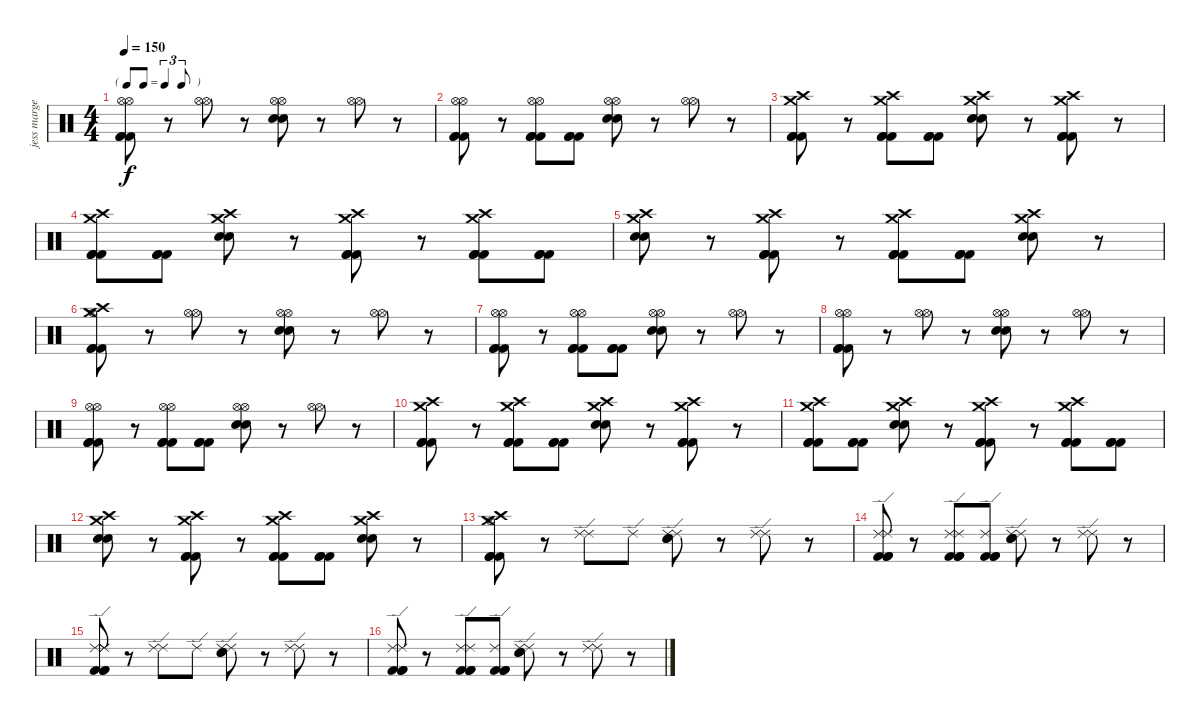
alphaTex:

\track ("jess margera" "jess marge") {instrument percussion}
\staff {score}
\articulation defaults
\ts (4 4)
\tf triplet8th
\tempo 150
\clef neutral
\ks c
("Hi-Hat (open)" "Hi-Hat (open)" "Kick (hit) 2" "Kick (hit) 2" "Kick (hit) 2").8{dy f} r.8 ("Hi-Hat (open)" "Hi-Hat (open)").8 r.8 ("Hi-Hat (open)" "Hi-Hat (open)" "Electric Snare (hit)" "Electric Snare (hit)").8 r.8 ("Hi-Hat (open)" "Hi-Hat (open)").8 r.8 |
("Hi-Hat (open)" "Hi-Hat (open)" "Kick (hit) 2" "Kick (hit) 2" "Kick (hit) 2").8 r.8 ("Hi-Hat (open)" "Hi-Hat (open)" "Kick (hit) 2" "Kick (hit) 2" "Kick (hit) 2").8 ("Kick (hit) 2" "Kick (hit) 2" "Kick (hit) 2").8 ("Hi-Hat (open)" "Hi-Hat (open)" "Electric Snare (hit)" "Electric Snare (hit)").8 r.8 ("Hi-Hat (open)" "Hi-Hat (open)").8 r.8 |
("Crash high (hit)" "Crash medium (hit)" "Kick (hit) 2" "Kick (hit) 2" "Kick (hit) 2").8 r.8 ("Crash high (hit)" "Crash medium (hit)" "Kick (hit) 2" "Kick (hit) 2" "Kick (hit) 2").8 ("Kick (hit) 2" "Kick (hit) 2" "Kick (hit) 2").8 ("Crash high (hit)" "Crash medium (hit)" "Electric Snare (hit)" "Electric Snare (hit)").8 r.8 ("Crash high (hit)" "Crash medium (hit)" "Kick (hit) 2" "Kick (hit) 2" "Kick (hit) 2").8 r.8 |
("Crash high (hit)" "Crash medium (hit)" "Kick (hit) 2" "Kick (hit) 2" "Kick (hit) 2").8 ("Kick (hit) 2" "Kick (hit) 2" "Kick (hit) 2").8 ("Crash high (hit)" "Crash medium (hit)" "Electric Snare (hit)" "Electric Snare (hit)").8 r.8 ("Crash high (hit)" "Crash medium (hit)" "Kick (hit) 2" "Kick (hit) 2" "Kick (hit) 2").8 r.8 ("Crash high (hit)" "Crash medium (hit)" "Kick (hit) 2" "Kick (hit) 2" "Kick (hit) 2").8 ("Kick (hit) 2" "Kick (hit) 2" "Kick (hit) 2").8 |
("Crash high (hit)" "Crash medium (hit)" "Electric Snare (hit)" "Electric Snare (hit)").8 r.8 ("Crash high (hit)" "Crash medium (hit)" "Kick (hit) 2" "Kick (hit) 2" "Kick (hit) 2").8 r.8 ("Crash high (hit)" "Crash medium (hit)" "Kick (hit) 2" "Kick (hit) 2" "Kick (hit) 2").8 ("Kick (hit) 2" "Kick (hit) 2" "Kick (hit) 2").8 ("Crash high (hit)" "Crash medium (hit)" "Electric Snare (hit)" "Electric Snare (hit)").8 r.8 |
("Hi-Hat (open)" "Crash high (hit)" "Crash medium (hit)" "Kick (hit) 2" "Kick (hit) 2" "Kick (hit) 2").8 r.8 ("Hi-Hat (open)" "Hi-Hat (open)").8 r.8 ("Hi-Hat (open)" "Hi-Hat (open)" "Electric Snare (hit)" "Electric Snare (hit)").8 r.8 ("Hi-Hat (open)" "Hi-Hat (open)").8 r.8 |
("Hi-Hat (open)" "Hi-Hat (open)" "Kick (hit) 2" "Kick (hit) 2" "Kick (hit) 2").8 r.8 ("Hi-Hat (open)" "Hi-Hat (open)" "Kick (hit) 2" "Kick (hit) 2" "Kick (hit) 2").8 ("Kick (hit) 2" "Kick (hit) 2" "Kick (hit) 2").8 ("Hi-Hat (open)" "Hi-Hat (open)" "Electric Snare (hit)" "Electric Snare (hit)").8 r.8 ("Hi-Hat (open)" "Hi-Hat (open)").8 r.8 |
("Hi-Hat (open)" "Hi-Hat (open)" "Kick (hit) 2" "Kick (hit) 2" "Kick (hit) 2").8 r.8 ("Hi-Hat (open)" "Hi-Hat (open)").8 r.8 ("Hi-Hat (open)" "Hi-Hat (open)" "Electric Snare (hit)" "Electric Snare (hit)").8 r.8 ("Hi-Hat (open)" "Hi-Hat (open)").8 r.8 |
("Hi-Hat (open)" "Hi-Hat (open)" "Kick (hit) 2" "Kick (hit) 2" "Kick (hit) 2").8 r.8 ("Hi-Hat (open)" "Hi-Hat (open)" "Kick (hit) 2" "Kick (hit) 2" "Kick (hit) 2").8 ("Kick (hit) 2" "Kick (hit) 2" "Kick (hit) 2").8 ("Hi-Hat (open)" "Hi-Hat (open)" "Electric Snare (hit)" "Electric Snare (hit)").8 r.8 ("Hi-Hat (open)" "Hi-Hat (open)").8 r.8 |
("Crash high (hit)" "Crash medium (hit)" "Kick (hit) 2" "Kick (hit) 2" "Kick (hit) 2").8 r.8 ("Crash high (hit)" "Crash medium (hit)" "Kick (hit) 2" "Kick (hit) 2" "Kick (hit) 2").8 ("Kick (hit) 2" "Kick (hit) 2" "Kick (hit) 2").8 ("Crash high (hit)" "Crash medium (hit)" "Electric Snare (hit)" "Electric Snare (hit)").8 r.8 ("Crash high (hit)" "Crash medium (hit)" "Kick (hit) 2" "Kick (hit) 2" "Kick (hit) 2").8 r.8 |
("Crash high (hit)" "Crash medium (hit)" "Kick (hit) 2" "Kick (hit) 2" "Kick (hit) 2").8 ("Kick (hit) 2" "Kick (hit) 2" "Kick (hit) 2").8 ("Crash high (hit)" "Crash medium (hit)" "Electric Snare (hit)" "Electric Snare (hit)").8 r.8 ("Crash high (hit)" "Crash medium (hit)" "Kick (hit) 2" "Kick (hit) 2" "Kick (hit) 2").8 r.8 ("Crash high (hit)" "Crash medium (hit)" "Kick (hit) 2" "Kick (hit) 2" "Kick (hit) 2").8 ("Kick (hit) 2" "Kick (hit) 2" "Kick (hit) 2").8 |
("Crash high (hit)" "Crash medium (hit)" "Electric Snare (hit)" "Electric Snare (hit)").8 r.8 ("Crash high (hit)" "Crash medium (hit)" "Kick (hit) 2" "Kick (hit) 2" "Kick (hit) 2").8 r.8 ("Crash high (hit)" "Crash medium (hit)" "Kick (hit) 2" "Kick (hit) 2" "Kick (hit) 2").8 ("Kick (hit) 2" "Kick (hit) 2" "Kick (hit) 2").8 ("Crash high (hit)" "Crash medium (hit)" "Electric Snare (hit)" "Electric Snare (hit)").8 r.8 |
("Hi-Hat (open)" "Crash high (hit)" "Crash medium (hit)" "Kick (hit) 2" "Kick (hit) 2" "Kick (hit) 2").8 r.8 ("Ride (edge) 2" "Ride (edge) 2").8 "Ride (edge) 2".8 ("Ride (edge) 2" "Ride (edge) 2" "Electric Snare (hit)" "Electric Snare (hit)").8 r.8 ("Ride (edge) 2" "Ride (edge) 2").8 r.8 |
("Ride (edge) 2" "Ride (edge) 2" "Kick (hit) 2" "Kick (hit) 2" "Kick (hit) 2").8 r.8 ("Ride (edge) 2" "Ride (edge) 2" "Kick (hit) 2" "Kick (hit) 2" "Kick (hit) 2").8 ("Ride (edge) 2" "Kick (hit) 2" "Kick (hit) 2" "Kick (hit) 2").8 ("Ride (edge) 2" "Ride (edge) 2" "Electric Snare (hit)" "Electric Snare (hit)").8 r.8 ("Ride (edge) 2" "Ride (edge) 2").8 r.8 |
("Ride (edge) 2" "Ride (edge) 2" "Ride (edge) 2" "Kick (hit) 2" "Kick (hit) 2" "Kick (hit) 2").8 r.8 ("Ride (edge) 2" "Ride (edge) 2").8 "Ride (edge) 2".8 ("Ride (edge) 2" "Ride (edge) 2" "Electric Snare (hit)" "Electric Snare (hit)").8 r.8 ("Ride (edge) 2" "Ride (edge) 2").8 r.8 |
("Ride (edge) 2" "Ride (edge) 2" "Kick (hit) 2" "Kick (hit) 2" "Kick (hit) 2").8 r.8 ("Ride (edge) 2" "Ride (edge) 2" "Kick (hit) 2" "Kick (hit) 2" "Kick (hit) 2").8 ("Ride (edge) 2" "Kick (hit) 2" "Kick (hit) 2" "Kick (hit) 2").8 ("Ride (edge) 2" "Ride (edge) 2" "Electric Snare (hit)" "Electric Snare (hit)").8 r.8 ("Ride (edge) 2" "Ride (edge) 2").8 r.8
